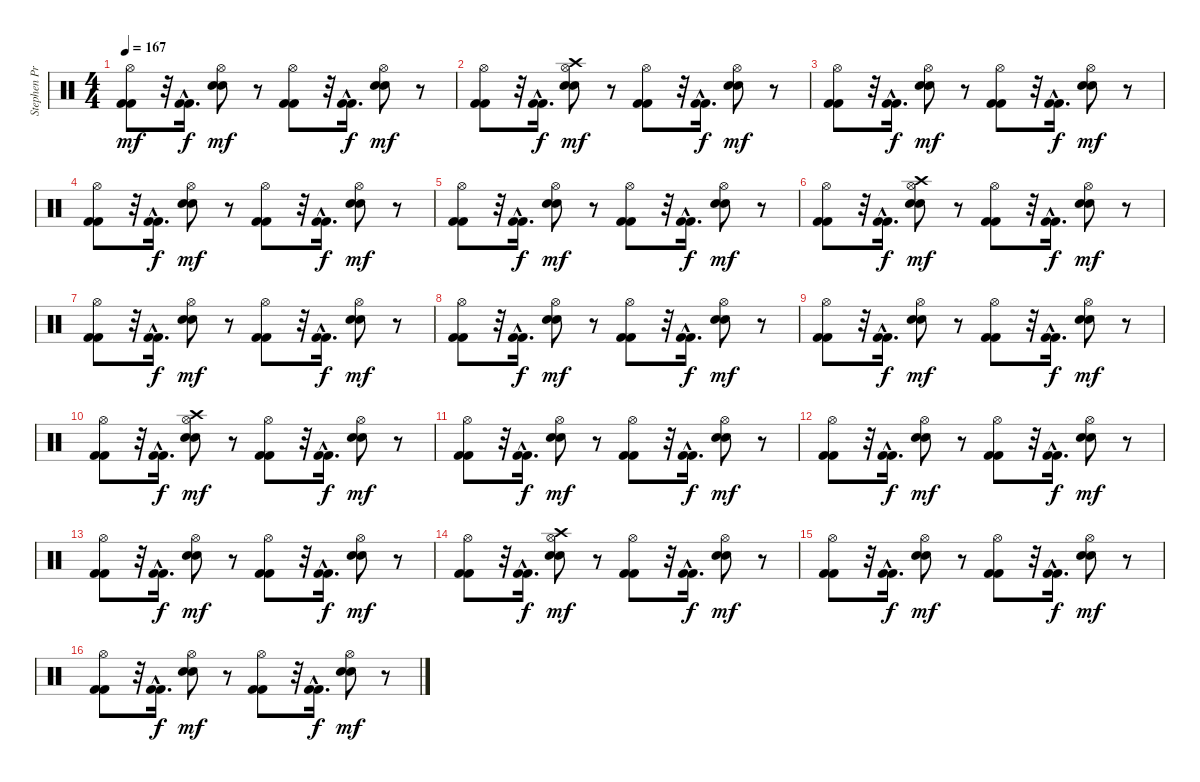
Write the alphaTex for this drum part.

\track ("Stephen Priestly  (Drums)" "Stephen Pr") {instrument percussion}
\staff {score}
\articulation defaults
\ts (4 4)
\tempo 167
\clef neutral
\ks c
("Hi-Hat (open)" "Kick (hit) 2" "Kick (hit) 2").8{dy mf} r.32 ("Kick (hit) 2"{hac} "Kick (hit) 2"{hac}).16{d dy f} ("Hi-Hat (open)" "Electric Snare (hit)" "Electric Snare (hit)").8{dy mf} r.8 ("Hi-Hat (open)" "Kick (hit) 2" "Kick (hit) 2").8 r.32 ("Kick (hit) 2"{hac} "Kick (hit) 2"{hac}).16{d dy f} ("Hi-Hat (open)" "Electric Snare (hit)" "Electric Snare (hit)").8{dy mf} r.8 |
("Hi-Hat (open)" "Kick (hit) 2" "Kick (hit) 2").8 r.32 ("Kick (hit) 2"{hac} "Kick (hit) 2"{hac}).16{d dy f} ("Crash high (hit)" "Hi-Hat (open)" "Electric Snare (hit)" "Electric Snare (hit)").8{dy mf} r.8 ("Hi-Hat (open)" "Kick (hit) 2" "Kick (hit) 2").8 r.32 ("Kick (hit) 2"{hac} "Kick (hit) 2"{hac}).16{d dy f} ("Hi-Hat (open)" "Electric Snare (hit)" "Electric Snare (hit)").8{dy mf} r.8 |
("Hi-Hat (open)" "Kick (hit) 2" "Kick (hit) 2").8 r.32 ("Kick (hit) 2"{hac} "Kick (hit) 2"{hac}).16{d dy f} ("Hi-Hat (open)" "Electric Snare (hit)" "Electric Snare (hit)").8{dy mf} r.8 ("Hi-Hat (open)" "Kick (hit) 2" "Kick (hit) 2").8 r.32 ("Kick (hit) 2"{hac} "Kick (hit) 2"{hac}).16{d dy f} ("Hi-Hat (open)" "Electric Snare (hit)" "Electric Snare (hit)").8{dy mf} r.8 |
("Hi-Hat (open)" "Kick (hit) 2" "Kick (hit) 2").8 r.32 ("Kick (hit) 2"{hac} "Kick (hit) 2"{hac}).16{d dy f} ("Hi-Hat (open)" "Electric Snare (hit)" "Electric Snare (hit)").8{dy mf} r.8 ("Hi-Hat (open)" "Kick (hit) 2" "Kick (hit) 2").8 r.32 ("Kick (hit) 2"{hac} "Kick (hit) 2"{hac}).16{d dy f} ("Hi-Hat (open)" "Electric Snare (hit)" "Electric Snare (hit)").8{dy mf} r.8 |
("Hi-Hat (open)" "Kick (hit) 2" "Kick (hit) 2").8 r.32 ("Kick (hit) 2"{hac} "Kick (hit) 2"{hac}).16{d dy f} ("Hi-Hat (open)" "Electric Snare (hit)" "Electric Snare (hit)").8{dy mf} r.8 ("Hi-Hat (open)" "Kick (hit) 2" "Kick (hit) 2").8 r.32 ("Kick (hit) 2"{hac} "Kick (hit) 2"{hac}).16{d dy f} ("Hi-Hat (open)" "Electric Snare (hit)" "Electric Snare (hit)").8{dy mf} r.8 |
("Hi-Hat (open)" "Kick (hit) 2" "Kick (hit) 2").8 r.32 ("Kick (hit) 2"{hac} "Kick (hit) 2"{hac}).16{d dy f} ("Crash high (hit)" "Hi-Hat (open)" "Electric Snare (hit)" "Electric Snare (hit)").8{dy mf} r.8 ("Hi-Hat (open)" "Kick (hit) 2" "Kick (hit) 2").8 r.32 ("Kick (hit) 2"{hac} "Kick (hit) 2"{hac}).16{d dy f} ("Hi-Hat (open)" "Electric Snare (hit)" "Electric Snare (hit)").8{dy mf} r.8 |
("Hi-Hat (open)" "Kick (hit) 2" "Kick (hit) 2").8 r.32 ("Kick (hit) 2"{hac} "Kick (hit) 2"{hac}).16{d dy f} ("Hi-Hat (open)" "Electric Snare (hit)" "Electric Snare (hit)").8{dy mf} r.8 ("Hi-Hat (open)" "Kick (hit) 2" "Kick (hit) 2").8 r.32 ("Kick (hit) 2"{hac} "Kick (hit) 2"{hac}).16{d dy f} ("Hi-Hat (open)" "Electric Snare (hit)" "Electric Snare (hit)").8{dy mf} r.8 |
("Hi-Hat (open)" "Kick (hit) 2" "Kick (hit) 2").8 r.32 ("Kick (hit) 2"{hac} "Kick (hit) 2"{hac}).16{d dy f} ("Hi-Hat (open)" "Electric Snare (hit)" "Electric Snare (hit)").8{dy mf} r.8 ("Hi-Hat (open)" "Kick (hit) 2" "Kick (hit) 2").8 r.32 ("Kick (hit) 2"{hac} "Kick (hit) 2"{hac}).16{d dy f} ("Hi-Hat (open)" "Electric Snare (hit)" "Electric Snare (hit)").8{dy mf} r.8 |
("Hi-Hat (open)" "Kick (hit) 2" "Kick (hit) 2").8 r.32 ("Kick (hit) 2"{hac} "Kick (hit) 2"{hac}).16{d dy f} ("Hi-Hat (open)" "Electric Snare (hit)" "Electric Snare (hit)").8{dy mf} r.8 ("Hi-Hat (open)" "Kick (hit) 2" "Kick (hit) 2").8 r.32 ("Kick (hit) 2"{hac} "Kick (hit) 2"{hac}).16{d dy f} ("Hi-Hat (open)" "Electric Snare (hit)" "Electric Snare (hit)").8{dy mf} r.8 |
("Hi-Hat (open)" "Kick (hit) 2" "Kick (hit) 2").8 r.32 ("Kick (hit) 2"{hac} "Kick (hit) 2"{hac}).16{d dy f} ("Crash high (hit)" "Hi-Hat (open)" "Electric Snare (hit)" "Electric Snare (hit)").8{dy mf} r.8 ("Hi-Hat (open)" "Kick (hit) 2" "Kick (hit) 2").8 r.32 ("Kick (hit) 2"{hac} "Kick (hit) 2"{hac}).16{d dy f} ("Hi-Hat (open)" "Electric Snare (hit)" "Electric Snare (hit)").8{dy mf} r.8 |
("Hi-Hat (open)" "Kick (hit) 2" "Kick (hit) 2").8 r.32 ("Kick (hit) 2"{hac} "Kick (hit) 2"{hac}).16{d dy f} ("Hi-Hat (open)" "Electric Snare (hit)" "Electric Snare (hit)").8{dy mf} r.8 ("Hi-Hat (open)" "Kick (hit) 2" "Kick (hit) 2").8 r.32 ("Kick (hit) 2"{hac} "Kick (hit) 2"{hac}).16{d dy f} ("Hi-Hat (open)" "Electric Snare (hit)" "Electric Snare (hit)").8{dy mf} r.8 |
("Hi-Hat (open)" "Kick (hit) 2" "Kick (hit) 2").8 r.32 ("Kick (hit) 2"{hac} "Kick (hit) 2"{hac}).16{d dy f} ("Hi-Hat (open)" "Electric Snare (hit)" "Electric Snare (hit)").8{dy mf} r.8 ("Hi-Hat (open)" "Kick (hit) 2" "Kick (hit) 2").8 r.32 ("Kick (hit) 2"{hac} "Kick (hit) 2"{hac}).16{d dy f} ("Hi-Hat (open)" "Electric Snare (hit)" "Electric Snare (hit)").8{dy mf} r.8 |
("Hi-Hat (open)" "Kick (hit) 2" "Kick (hit) 2").8 r.32 ("Kick (hit) 2"{hac} "Kick (hit) 2"{hac}).16{d dy f} ("Hi-Hat (open)" "Electric Snare (hit)" "Electric Snare (hit)").8{dy mf} r.8 ("Hi-Hat (open)" "Kick (hit) 2" "Kick (hit) 2").8 r.32 ("Kick (hit) 2"{hac} "Kick (hit) 2"{hac}).16{d dy f} ("Hi-Hat (open)" "Electric Snare (hit)" "Electric Snare (hit)").8{dy mf} r.8 |
("Hi-Hat (open)" "Kick (hit) 2" "Kick (hit) 2").8 r.32 ("Kick (hit) 2"{hac} "Kick (hit) 2"{hac}).16{d dy f} ("Crash high (hit)" "Hi-Hat (open)" "Electric Snare (hit)" "Electric Snare (hit)").8{dy mf} r.8 ("Hi-Hat (open)" "Kick (hit) 2" "Kick (hit) 2").8 r.32 ("Kick (hit) 2"{hac} "Kick (hit) 2"{hac}).16{d dy f} ("Hi-Hat (open)" "Electric Snare (hit)" "Electric Snare (hit)").8{dy mf} r.8 |
("Hi-Hat (open)" "Kick (hit) 2" "Kick (hit) 2").8 r.32 ("Kick (hit) 2"{hac} "Kick (hit) 2"{hac}).16{d dy f} ("Hi-Hat (open)" "Electric Snare (hit)" "Electric Snare (hit)").8{dy mf} r.8 ("Hi-Hat (open)" "Kick (hit) 2" "Kick (hit) 2").8 r.32 ("Kick (hit) 2"{hac} "Kick (hit) 2"{hac}).16{d dy f} ("Hi-Hat (open)" "Electric Snare (hit)" "Electric Snare (hit)").8{dy mf} r.8 |
("Hi-Hat (open)" "Kick (hit) 2" "Kick (hit) 2").8 r.32 ("Kick (hit) 2"{hac} "Kick (hit) 2"{hac}).16{d dy f} ("Hi-Hat (open)" "Electric Snare (hit)" "Electric Snare (hit)").8{dy mf} r.8 ("Hi-Hat (open)" "Kick (hit) 2" "Kick (hit) 2").8 r.32 ("Kick (hit) 2"{hac} "Kick (hit) 2"{hac}).16{d dy f} ("Hi-Hat (open)" "Electric Snare (hit)" "Electric Snare (hit)").8{dy mf} r.8
